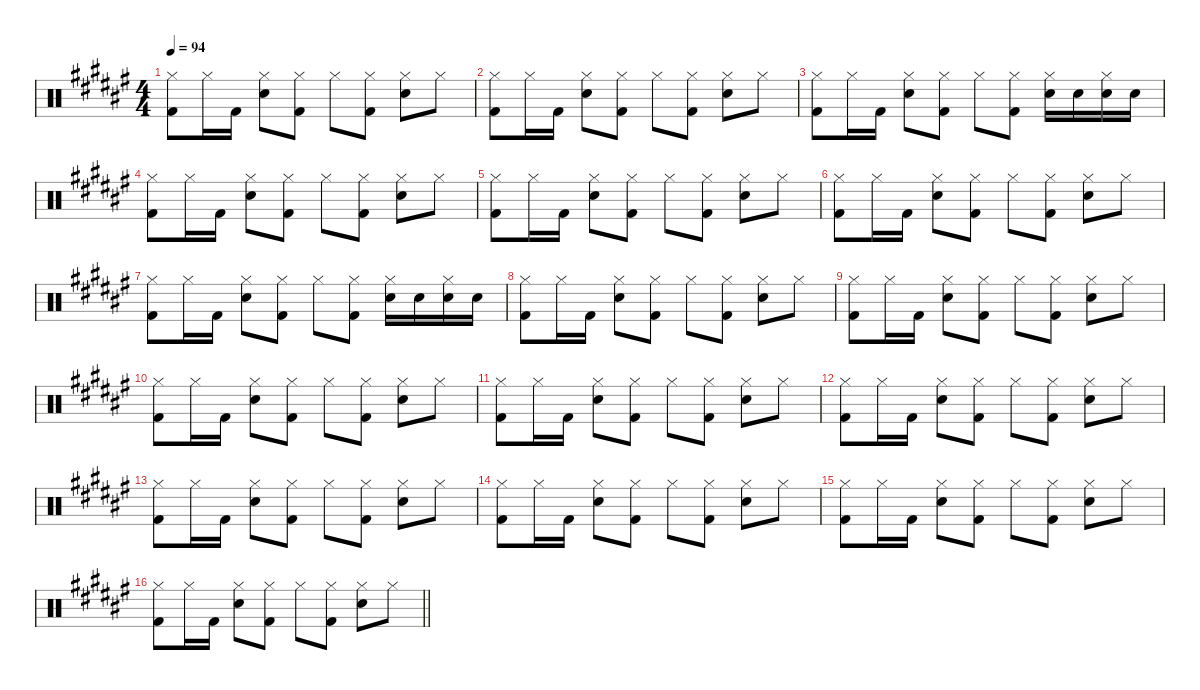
\defaultSystemsLayout 4
\hideDynamics
\bracketExtendMode nobrackets
\singleTrackTrackNamePolicy hidden
\multiTrackTrackNamePolicy hidden
\otherSystemsTrackNameOrientation horizontal
\track ("Mike Joyce" "drm.") {instrument percussion}
\staff {score}
\articulation defaults
\ts (4 4)
\tempo 94
\clef neutral
\ks f#
("Hi-Hat (closed)"{acc forcenatural} "Kick (hit) 2"{acc forcenatural}).8{dy f beam Down} "Hi-Hat (closed)"{acc forcenatural}.16{beam Down} "Kick (hit) 2"{acc forcenatural}.16{beam Down} ("Hi-Hat (closed)"{acc forcenatural} "Snare (hit) 2"{acc forcenatural}).8{beam Down} ("Hi-Hat (closed)"{acc forcenatural} "Kick (hit) 2"{acc forcenatural}).8{beam Down} "Hi-Hat (closed)"{acc forcenatural}.8{beam Down} ("Hi-Hat (closed)"{acc forcenatural} "Kick (hit) 2"{acc forcenatural}).8{beam Down} ("Hi-Hat (closed)"{acc forcenatural} "Snare (hit) 2"{acc forcenatural}).8{beam Down} "Hi-Hat (closed)"{acc forcenatural}.8{beam Down} |
("Hi-Hat (closed)"{acc forcenatural} "Kick (hit) 2"{acc forcenatural}).8{beam Down} "Hi-Hat (closed)"{acc forcenatural}.16{beam Down} "Kick (hit) 2"{acc forcenatural}.16{beam Down} ("Hi-Hat (closed)"{acc forcenatural} "Snare (hit) 2"{acc forcenatural}).8{beam Down} ("Hi-Hat (closed)"{acc forcenatural} "Kick (hit) 2"{acc forcenatural}).8{beam Down} "Hi-Hat (closed)"{acc forcenatural}.8{beam Down} ("Hi-Hat (closed)"{acc forcenatural} "Kick (hit) 2"{acc forcenatural}).8{beam Down} ("Hi-Hat (closed)"{acc forcenatural} "Snare (hit) 2"{acc forcenatural}).8{beam Down} "Hi-Hat (closed)"{acc forcenatural}.8{beam Down} |
("Hi-Hat (closed)"{acc forcenatural} "Kick (hit) 2"{acc forcenatural}).8{beam Down} "Hi-Hat (closed)"{acc forcenatural}.16{beam Down} "Kick (hit) 2"{acc forcenatural}.16{beam Down} ("Hi-Hat (closed)"{acc forcenatural} "Snare (hit) 2"{acc forcenatural}).8{beam Down} ("Hi-Hat (closed)"{acc forcenatural} "Kick (hit) 2"{acc forcenatural}).8{beam Down} "Hi-Hat (closed)"{acc forcenatural}.8{beam Down} ("Hi-Hat (closed)"{acc forcenatural} "Kick (hit) 2"{acc forcenatural}).8{beam Down} ("Hi-Hat (closed)"{acc forcenatural} "Snare (hit) 2"{acc forcenatural}).16{beam Down} "Snare (hit) 2"{acc forcenatural}.16{beam Down} ("Hi-Hat (closed)"{acc forcenatural} "Snare (hit) 2"{acc forcenatural}).16{beam Down} "Snare (hit) 2"{acc forcenatural}.16{beam Down} |
("Hi-Hat (closed)"{acc forcenatural} "Kick (hit) 2"{acc forcenatural}).8{beam Down} "Hi-Hat (closed)"{acc forcenatural}.16{beam Down} "Kick (hit) 2"{acc forcenatural}.16{beam Down} ("Hi-Hat (closed)"{acc forcenatural} "Snare (hit) 2"{acc forcenatural}).8{beam Down} ("Hi-Hat (closed)"{acc forcenatural} "Kick (hit) 2"{acc forcenatural}).8{beam Down} "Hi-Hat (closed)"{acc forcenatural}.8{beam Down} ("Hi-Hat (closed)"{acc forcenatural} "Kick (hit) 2"{acc forcenatural}).8{beam Down} ("Hi-Hat (closed)"{acc forcenatural} "Snare (hit) 2"{acc forcenatural}).8{beam Down} "Hi-Hat (closed)"{acc forcenatural}.8{beam Down} |
("Hi-Hat (closed)"{acc forcenatural} "Kick (hit) 2"{acc forcenatural}).8{beam Down} "Hi-Hat (closed)"{acc forcenatural}.16{beam Down} "Kick (hit) 2"{acc forcenatural}.16{beam Down} ("Hi-Hat (closed)"{acc forcenatural} "Snare (hit) 2"{acc forcenatural}).8{beam Down} ("Hi-Hat (closed)"{acc forcenatural} "Kick (hit) 2"{acc forcenatural}).8{beam Down} "Hi-Hat (closed)"{acc forcenatural}.8{beam Down} ("Hi-Hat (closed)"{acc forcenatural} "Kick (hit) 2"{acc forcenatural}).8{beam Down} ("Hi-Hat (closed)"{acc forcenatural} "Snare (hit) 2"{acc forcenatural}).8{beam Down} "Hi-Hat (closed)"{acc forcenatural}.8{beam Down} |
("Hi-Hat (closed)"{acc forcenatural} "Kick (hit) 2"{acc forcenatural}).8{beam Down} "Hi-Hat (closed)"{acc forcenatural}.16{beam Down} "Kick (hit) 2"{acc forcenatural}.16{beam Down} ("Hi-Hat (closed)"{acc forcenatural} "Snare (hit) 2"{acc forcenatural}).8{beam Down} ("Hi-Hat (closed)"{acc forcenatural} "Kick (hit) 2"{acc forcenatural}).8{beam Down} "Hi-Hat (closed)"{acc forcenatural}.8{beam Down} ("Hi-Hat (closed)"{acc forcenatural} "Kick (hit) 2"{acc forcenatural}).8{beam Down} ("Hi-Hat (closed)"{acc forcenatural} "Snare (hit) 2"{acc forcenatural}).8{beam Down} "Hi-Hat (closed)"{acc forcenatural}.8{beam Down} |
("Hi-Hat (closed)"{acc forcenatural} "Kick (hit) 2"{acc forcenatural}).8{beam Down} "Hi-Hat (closed)"{acc forcenatural}.16{beam Down} "Kick (hit) 2"{acc forcenatural}.16{beam Down} ("Hi-Hat (closed)"{acc forcenatural} "Snare (hit) 2"{acc forcenatural}).8{beam Down} ("Hi-Hat (closed)"{acc forcenatural} "Kick (hit) 2"{acc forcenatural}).8{beam Down} "Hi-Hat (closed)"{acc forcenatural}.8{beam Down} ("Hi-Hat (closed)"{acc forcenatural} "Kick (hit) 2"{acc forcenatural}).8{beam Down} ("Hi-Hat (closed)"{acc forcenatural} "Snare (hit) 2"{acc forcenatural}).16{beam Down} "Snare (hit) 2"{acc forcenatural}.16{beam Down} ("Hi-Hat (closed)"{acc forcenatural} "Snare (hit) 2"{acc forcenatural}).16{beam Down} "Snare (hit) 2"{acc forcenatural}.16{beam Down} |
("Hi-Hat (closed)"{acc forcenatural} "Kick (hit) 2"{acc forcenatural}).8{beam Down} "Hi-Hat (closed)"{acc forcenatural}.16{beam Down} "Kick (hit) 2"{acc forcenatural}.16{beam Down} ("Hi-Hat (closed)"{acc forcenatural} "Snare (hit) 2"{acc forcenatural}).8{beam Down} ("Hi-Hat (closed)"{acc forcenatural} "Kick (hit) 2"{acc forcenatural}).8{beam Down} "Hi-Hat (closed)"{acc forcenatural}.8{beam Down} ("Hi-Hat (closed)"{acc forcenatural} "Kick (hit) 2"{acc forcenatural}).8{beam Down} ("Hi-Hat (closed)"{acc forcenatural} "Snare (hit) 2"{acc forcenatural}).8{beam Down} "Hi-Hat (closed)"{acc forcenatural}.8{beam Down} |
("Hi-Hat (closed)"{acc forcenatural} "Kick (hit) 2"{acc forcenatural}).8{beam Down} "Hi-Hat (closed)"{acc forcenatural}.16{beam Down} "Kick (hit) 2"{acc forcenatural}.16{beam Down} ("Hi-Hat (closed)"{acc forcenatural} "Snare (hit) 2"{acc forcenatural}).8{beam Down} ("Hi-Hat (closed)"{acc forcenatural} "Kick (hit) 2"{acc forcenatural}).8{beam Down} "Hi-Hat (closed)"{acc forcenatural}.8{beam Down} ("Hi-Hat (closed)"{acc forcenatural} "Kick (hit) 2"{acc forcenatural}).8{beam Down} ("Hi-Hat (closed)"{acc forcenatural} "Snare (hit) 2"{acc forcenatural}).8{beam Down} "Hi-Hat (closed)"{acc forcenatural}.8{beam Down} |
("Hi-Hat (closed)"{acc forcenatural} "Kick (hit) 2"{acc forcenatural}).8{beam Down} "Hi-Hat (closed)"{acc forcenatural}.16{beam Down} "Kick (hit) 2"{acc forcenatural}.16{beam Down} ("Hi-Hat (closed)"{acc forcenatural} "Snare (hit) 2"{acc forcenatural}).8{beam Down} ("Hi-Hat (closed)"{acc forcenatural} "Kick (hit) 2"{acc forcenatural}).8{beam Down} "Hi-Hat (closed)"{acc forcenatural}.8{beam Down} ("Hi-Hat (closed)"{acc forcenatural} "Kick (hit) 2"{acc forcenatural}).8{beam Down} ("Hi-Hat (closed)"{acc forcenatural} "Snare (hit) 2"{acc forcenatural}).8{beam Down} "Hi-Hat (closed)"{acc forcenatural}.8{beam Down} |
("Hi-Hat (closed)"{acc forcenatural} "Kick (hit) 2"{acc forcenatural}).8{beam Down} "Hi-Hat (closed)"{acc forcenatural}.16{beam Down} "Kick (hit) 2"{acc forcenatural}.16{beam Down} ("Hi-Hat (closed)"{acc forcenatural} "Snare (hit) 2"{acc forcenatural}).8{beam Down} ("Hi-Hat (closed)"{acc forcenatural} "Kick (hit) 2"{acc forcenatural}).8{beam Down} "Hi-Hat (closed)"{acc forcenatural}.8{beam Down} ("Hi-Hat (closed)"{acc forcenatural} "Kick (hit) 2"{acc forcenatural}).8{beam Down} ("Hi-Hat (closed)"{acc forcenatural} "Snare (hit) 2"{acc forcenatural}).8{beam Down} "Hi-Hat (closed)"{acc forcenatural}.8{beam Down} |
("Hi-Hat (closed)"{acc forcenatural} "Kick (hit) 2"{acc forcenatural}).8{beam Down} "Hi-Hat (closed)"{acc forcenatural}.16{beam Down} "Kick (hit) 2"{acc forcenatural}.16{beam Down} ("Hi-Hat (closed)"{acc forcenatural} "Snare (hit) 2"{acc forcenatural}).8{beam Down} ("Hi-Hat (closed)"{acc forcenatural} "Kick (hit) 2"{acc forcenatural}).8{beam Down} "Hi-Hat (closed)"{acc forcenatural}.8{beam Down} ("Hi-Hat (closed)"{acc forcenatural} "Kick (hit) 2"{acc forcenatural}).8{beam Down} ("Hi-Hat (closed)"{acc forcenatural} "Snare (hit) 2"{acc forcenatural}).8{beam Down} "Hi-Hat (closed)"{acc forcenatural}.8{beam Down} |
("Hi-Hat (closed)"{acc forcenatural} "Kick (hit) 2"{acc forcenatural}).8{beam Down} "Hi-Hat (closed)"{acc forcenatural}.16{beam Down} "Kick (hit) 2"{acc forcenatural}.16{beam Down} ("Hi-Hat (closed)"{acc forcenatural} "Snare (hit) 2"{acc forcenatural}).8{beam Down} ("Hi-Hat (closed)"{acc forcenatural} "Kick (hit) 2"{acc forcenatural}).8{beam Down} "Hi-Hat (closed)"{acc forcenatural}.8{beam Down} ("Hi-Hat (closed)"{acc forcenatural} "Kick (hit) 2"{acc forcenatural}).8{beam Down} ("Hi-Hat (closed)"{acc forcenatural} "Snare (hit) 2"{acc forcenatural}).8{beam Down} "Hi-Hat (closed)"{acc forcenatural}.8{beam Down} |
("Hi-Hat (closed)"{acc forcenatural} "Kick (hit) 2"{acc forcenatural}).8{beam Down} "Hi-Hat (closed)"{acc forcenatural}.16{beam Down} "Kick (hit) 2"{acc forcenatural}.16{beam Down} ("Hi-Hat (closed)"{acc forcenatural} "Snare (hit) 2"{acc forcenatural}).8{beam Down} ("Hi-Hat (closed)"{acc forcenatural} "Kick (hit) 2"{acc forcenatural}).8{beam Down} "Hi-Hat (closed)"{acc forcenatural}.8{beam Down} ("Hi-Hat (closed)"{acc forcenatural} "Kick (hit) 2"{acc forcenatural}).8{beam Down} ("Hi-Hat (closed)"{acc forcenatural} "Snare (hit) 2"{acc forcenatural}).8{beam Down} "Hi-Hat (closed)"{acc forcenatural}.8{beam Down} |
("Hi-Hat (closed)"{acc forcenatural} "Kick (hit) 2"{acc forcenatural}).8{beam Down} "Hi-Hat (closed)"{acc forcenatural}.16{beam Down} "Kick (hit) 2"{acc forcenatural}.16{beam Down} ("Hi-Hat (closed)"{acc forcenatural} "Snare (hit) 2"{acc forcenatural}).8{beam Down} ("Hi-Hat (closed)"{acc forcenatural} "Kick (hit) 2"{acc forcenatural}).8{beam Down} "Hi-Hat (closed)"{acc forcenatural}.8{beam Down} ("Hi-Hat (closed)"{acc forcenatural} "Kick (hit) 2"{acc forcenatural}).8{beam Down} ("Hi-Hat (closed)"{acc forcenatural} "Snare (hit) 2"{acc forcenatural}).8{beam Down} "Hi-Hat (closed)"{acc forcenatural}.8{beam Down} |
\barLineRight lightlight
("Hi-Hat (closed)"{acc forcenatural} "Kick (hit) 2"{acc forcenatural}).8{beam Down} "Hi-Hat (closed)"{acc forcenatural}.16{beam Down} "Kick (hit) 2"{acc forcenatural}.16{beam Down} ("Hi-Hat (closed)"{acc forcenatural} "Snare (hit) 2"{acc forcenatural}).8{beam Down} ("Hi-Hat (closed)"{acc forcenatural} "Kick (hit) 2"{acc forcenatural}).8{beam Down} "Hi-Hat (closed)"{acc forcenatural}.8{beam Down} ("Hi-Hat (closed)"{acc forcenatural} "Kick (hit) 2"{acc forcenatural}).8{beam Down} ("Hi-Hat (closed)"{acc forcenatural} "Snare (hit) 2"{acc forcenatural}).8{beam Down} "Hi-Hat (closed)"{acc forcenatural}.8{beam Down}
